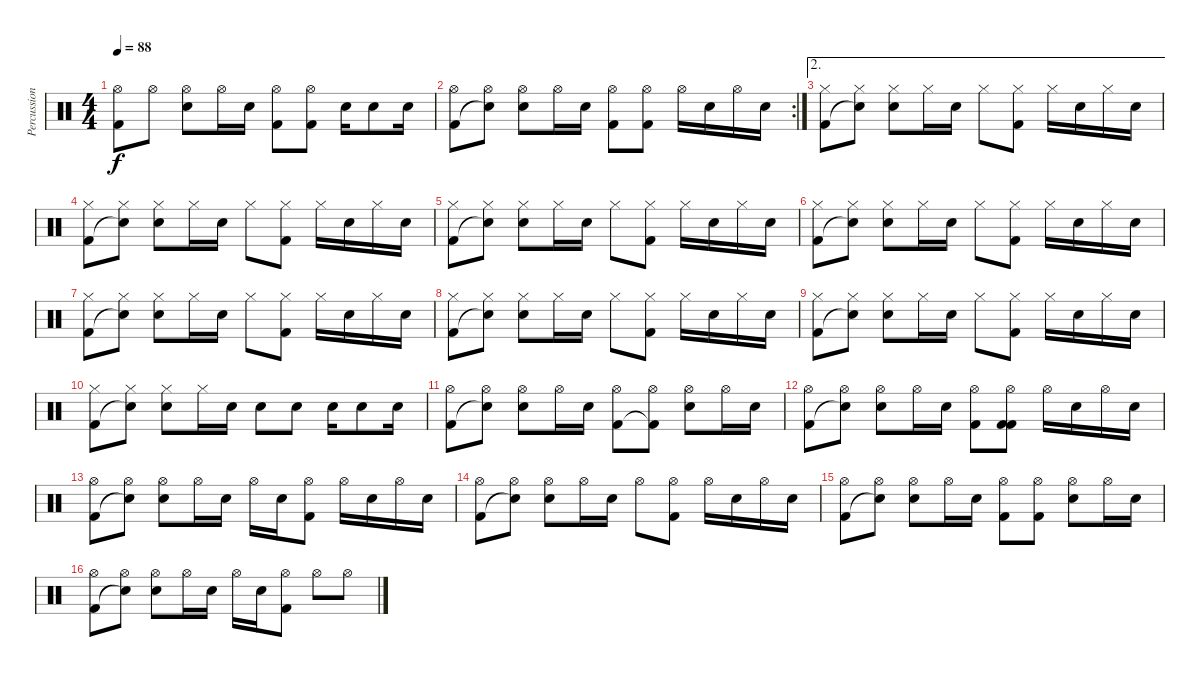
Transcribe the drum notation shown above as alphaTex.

\track ("Percussion" "Percussion") {instrument percussion}
\staff {score}
\articulation defaults
\ts (4 4)
\tempo 88
\clef neutral
\ks c
("Hi-Hat (open)" "Kick (hit) 2").8{dy f} "Hi-Hat (open)".8 ("Hi-Hat (open)" "Snare (hit) 2").8 "Hi-Hat (open)".16 "Snare (hit) 2".16 ("Hi-Hat (open)" "Kick (hit) 2").8 ("Hi-Hat (open)" "Kick (hit) 2").8 "Snare (hit) 2".16 "Snare (hit) 2".8 "Snare (hit) 2".16 |
\rc 2
("Hi-Hat (open)" "Kick (hit) 2").8 ("Hi-Hat (open)" "Snare (hit)"{t}).8 ("Hi-Hat (open)" "Snare (hit) 2").8 "Hi-Hat (open)".16 "Snare (hit) 2".16 ("Hi-Hat (open)" "Kick (hit) 2").8 ("Hi-Hat (open)" "Kick (hit) 2").8 "Hi-Hat (open)".16 "Snare (hit) 2".16 "Hi-Hat (open)".16 "Snare (hit) 2".16 |
\ae 2
("Hi-Hat (closed)" "Kick (hit) 2").8 ("Hi-Hat (closed)" "Snare (hit)"{t}).8 ("Hi-Hat (closed)" "Snare (hit) 2").8 "Hi-Hat (closed)".16 "Snare (hit) 2".16 "Hi-Hat (closed)".8 ("Hi-Hat (closed)" "Kick (hit) 2").8 "Hi-Hat (closed)".16 "Snare (hit) 2".16 "Hi-Hat (closed)".16 "Snare (hit) 2".16 |
("Hi-Hat (closed)" "Kick (hit) 2").8 ("Hi-Hat (closed)" "Snare (hit)"{t}).8 ("Hi-Hat (closed)" "Snare (hit) 2").8 "Hi-Hat (closed)".16 "Snare (hit) 2".16 "Hi-Hat (closed)".8 ("Hi-Hat (closed)" "Kick (hit) 2").8 "Hi-Hat (closed)".16 "Snare (hit) 2".16 "Hi-Hat (closed)".16 "Snare (hit) 2".16 |
("Hi-Hat (closed)" "Kick (hit) 2").8 ("Hi-Hat (closed)" "Snare (hit)"{t}).8 ("Hi-Hat (closed)" "Snare (hit) 2").8 "Hi-Hat (closed)".16 "Snare (hit) 2".16 "Hi-Hat (closed)".8 ("Hi-Hat (closed)" "Kick (hit) 2").8 "Hi-Hat (closed)".16 "Snare (hit) 2".16 "Hi-Hat (closed)".16 "Snare (hit) 2".16 |
("Hi-Hat (closed)" "Kick (hit) 2").8 ("Hi-Hat (closed)" "Snare (hit)"{t}).8 ("Hi-Hat (closed)" "Snare (hit) 2").8 "Hi-Hat (closed)".16 "Snare (hit) 2".16 "Hi-Hat (closed)".8 ("Hi-Hat (closed)" "Kick (hit) 2").8 "Hi-Hat (closed)".16 "Snare (hit) 2".16 "Hi-Hat (closed)".16 "Snare (hit) 2".16 |
("Hi-Hat (closed)" "Kick (hit) 2").8 ("Hi-Hat (closed)" "Snare (hit)"{t}).8 ("Hi-Hat (closed)" "Snare (hit) 2").8 "Hi-Hat (closed)".16 "Snare (hit) 2".16 "Hi-Hat (closed)".8 ("Hi-Hat (closed)" "Kick (hit) 2").8 "Hi-Hat (closed)".16 "Snare (hit) 2".16 "Hi-Hat (closed)".16 "Snare (hit) 2".16 |
("Hi-Hat (closed)" "Kick (hit) 2").8 ("Hi-Hat (closed)" "Snare (hit)"{t}).8 ("Hi-Hat (closed)" "Snare (hit) 2").8 "Hi-Hat (closed)".16 "Snare (hit) 2".16 "Hi-Hat (closed)".8 ("Hi-Hat (closed)" "Kick (hit) 2").8 "Hi-Hat (closed)".16 "Snare (hit) 2".16 "Hi-Hat (closed)".16 "Snare (hit) 2".16 |
("Hi-Hat (closed)" "Kick (hit) 2").8 ("Hi-Hat (closed)" "Snare (hit)"{t}).8 ("Hi-Hat (closed)" "Snare (hit) 2").8 "Hi-Hat (closed)".16 "Snare (hit) 2".16 "Hi-Hat (closed)".8 ("Hi-Hat (closed)" "Kick (hit) 2").8 "Hi-Hat (closed)".16 "Snare (hit) 2".16 "Hi-Hat (closed)".16 "Snare (hit) 2".16 |
("Hi-Hat (closed)" "Kick (hit) 2").8 ("Hi-Hat (closed)" "Snare (hit)"{t}).8 ("Hi-Hat (closed)" "Snare (hit) 2").8 "Hi-Hat (closed)".16 "Snare (hit) 2".16 "Snare (hit) 2".8 "Snare (hit) 2".8 "Snare (hit) 2".16 "Snare (hit) 2".8 "Snare (hit) 2".16 |
("Hi-Hat (open)" "Kick (hit) 2").8 ("Hi-Hat (open)" "Snare (hit)"{t}).8 ("Hi-Hat (open)" "Snare (hit) 2").8 "Hi-Hat (open)".16 "Snare (hit) 2".16 ("Hi-Hat (open)" "Kick (hit) 2").8 ("Hi-Hat (open)" "Kick (hit) 2"{t}).8 ("Hi-Hat (open)" "Snare (hit) 2").8 "Hi-Hat (open)".16 "Snare (hit) 2".16 |
("Hi-Hat (open)" "Kick (hit) 2").8 ("Hi-Hat (open)" "Snare (hit)"{t}).8 ("Hi-Hat (open)" "Snare (hit) 2").8 "Hi-Hat (open)".16 "Snare (hit) 2".16 ("Hi-Hat (open)" "Kick (hit) 2").8 ("Hi-Hat (open)" "Kick (hit) 2" "Kick (hit) 2").8 "Hi-Hat (open)".16 "Snare (hit) 2".16 "Hi-Hat (open)".16 "Snare (hit) 2".16 |
("Hi-Hat (open)" "Kick (hit) 2").8 ("Hi-Hat (open)" "Snare (hit)"{t}).8 ("Hi-Hat (open)" "Snare (hit) 2").8 "Hi-Hat (open)".16 "Snare (hit) 2".16 "Hi-Hat (open)".16 "Snare (hit) 2".16 ("Hi-Hat (open)" "Kick (hit) 2").8 "Hi-Hat (open)".16 "Snare (hit) 2".16 "Hi-Hat (open)".16 "Snare (hit) 2".16 |
("Hi-Hat (open)" "Kick (hit) 2").8 ("Hi-Hat (open)" "Snare (hit)"{t}).8 ("Hi-Hat (open)" "Snare (hit) 2").8 "Hi-Hat (open)".16 "Snare (hit) 2".16 "Hi-Hat (open)".8 ("Hi-Hat (open)" "Kick (hit) 2").8 "Hi-Hat (open)".16 "Snare (hit) 2".16 "Hi-Hat (open)".16 "Snare (hit) 2".16 |
("Hi-Hat (open)" "Kick (hit) 2").8 ("Hi-Hat (open)" "Snare (hit)"{t}).8 ("Hi-Hat (open)" "Snare (hit) 2").8 "Hi-Hat (open)".16 "Snare (hit) 2".16 ("Hi-Hat (open)" "Kick (hit) 2").8 ("Hi-Hat (open)" "Kick (hit) 2").8 ("Hi-Hat (open)" "Snare (hit) 2").8 "Hi-Hat (open)".16 "Snare (hit) 2".16 |
("Hi-Hat (open)" "Kick (hit) 2").8 ("Hi-Hat (open)" "Snare (hit)"{t}).8 ("Hi-Hat (open)" "Snare (hit) 2").8 "Hi-Hat (open)".16 "Snare (hit) 2".16 "Hi-Hat (open)".16 "Snare (hit) 2".16 ("Hi-Hat (open)" "Kick (hit) 2").8 "Hi-Hat (open)".8 "Hi-Hat (open)".8
